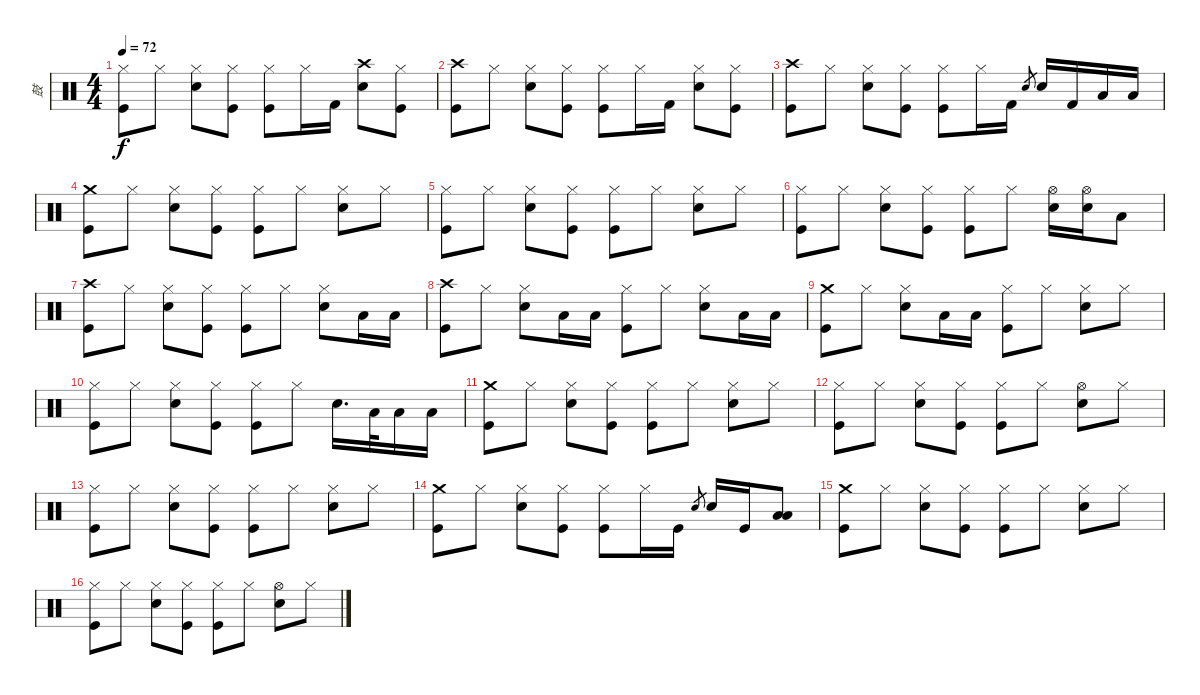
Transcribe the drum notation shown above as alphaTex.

\track ("鼓" "鼓") {instrument percussion}
\staff {score}
\articulation defaults
\ts (4 4)
\tempo 72
\clef neutral
\ks c
("Hi-Hat (closed)" "Kick (hit)").8{dy f} "Hi-Hat (closed)".8 ("Hi-Hat (closed)" "Snare (hit) 2").8 ("Hi-Hat (closed)" "Kick (hit)").8 ("Hi-Hat (closed)" "Kick (hit)").8 "Hi-Hat (closed)".16 "Kick (hit) 2".16 ("Crash high (hit)" "Snare (hit) 2").8 ("Hi-Hat (closed)" "Kick (hit)").8 |
("Crash high (hit)" "Kick (hit)").8 "Hi-Hat (closed)".8 ("Hi-Hat (closed)" "Snare (hit) 2").8 ("Hi-Hat (closed)" "Kick (hit)").8 ("Hi-Hat (closed)" "Kick (hit)").8 "Hi-Hat (closed)".16 "Kick (hit) 2".16 ("Hi-Hat (closed)" "Snare (hit) 2").8 ("Hi-Hat (closed)" "Kick (hit)").8 |
("Crash high (hit)" "Kick (hit)").8 "Hi-Hat (closed)".8 ("Hi-Hat (closed)" "Snare (hit) 2").8 ("Hi-Hat (closed)" "Kick (hit)").8 ("Hi-Hat (closed)" "Kick (hit)").8 "Hi-Hat (closed)".16 "Kick (hit) 2".16 "Snare (hit) 2".8{gr} "Snare (hit) 2".16 "Kick (hit) 2".16 "Low Tom (hit)".16 "Low Floor Tom (hit)".16 |
("Crash medium (hit)" "Kick (hit)").8 "Hi-Hat (closed)".8 ("Hi-Hat (closed)" "Snare (hit) 2").8 ("Hi-Hat (closed)" "Kick (hit)").8 ("Hi-Hat (closed)" "Kick (hit)").8 "Hi-Hat (closed)".8 ("Hi-Hat (closed)" "Snare (hit) 2").8 "Hi-Hat (closed)".8 |
("Hi-Hat (closed)" "Kick (hit)").8 "Hi-Hat (closed)".8 ("Hi-Hat (closed)" "Snare (hit) 2").8 ("Hi-Hat (closed)" "Kick (hit)").8 ("Hi-Hat (closed)" "Kick (hit)").8 "Hi-Hat (closed)".8 ("Hi-Hat (closed)" "Snare (hit) 2").8 "Hi-Hat (closed)".8 |
("Hi-Hat (closed)" "Kick (hit)").8 "Hi-Hat (closed)".8 ("Hi-Hat (closed)" "Snare (hit) 2").8 ("Hi-Hat (closed)" "Kick (hit)").8 ("Hi-Hat (closed)" "Kick (hit)").8 "Hi-Hat (closed)".8 ("Hi-Hat (open)" "Snare (hit) 2").16 ("Hi-Hat (open)" "Snare (hit) 2").16 "Low Tom (hit)".8 |
("Crash high (hit)" "Kick (hit)").8 "Hi-Hat (closed)".8 ("Hi-Hat (closed)" "Snare (hit) 2").8 ("Hi-Hat (closed)" "Kick (hit)").8 ("Hi-Hat (closed)" "Kick (hit)").8 "Hi-Hat (closed)".8 ("Hi-Hat (closed)" "Snare (hit) 2").8 "Low Floor Tom (hit)".16 "Low Floor Tom (hit)".16 |
("Crash high (hit)" "Kick (hit)").8 "Hi-Hat (closed)".8 ("Hi-Hat (closed)" "Snare (hit) 2").8 "Low Floor Tom (hit)".16 "Low Floor Tom (hit)".16 ("Hi-Hat (closed)" "Kick (hit)").8 "Hi-Hat (closed)".8 ("Hi-Hat (closed)" "Snare (hit) 2").8 "Low Floor Tom (hit)".16 "Low Floor Tom (hit)".16 |
("Crash medium (hit)" "Kick (hit)").8 "Hi-Hat (closed)".8 ("Hi-Hat (closed)" "Snare (hit) 2").8 "Low Floor Tom (hit)".16 "Low Floor Tom (hit)".16 ("Hi-Hat (closed)" "Kick (hit)").8 "Hi-Hat (closed)".8 ("Hi-Hat (closed)" "Snare (hit) 2").8 "Hi-Hat (closed)".8 |
("Hi-Hat (closed)" "Kick (hit)").8 "Hi-Hat (closed)".8 ("Hi-Hat (closed)" "Snare (hit) 2").8 ("Hi-Hat (closed)" "Kick (hit)").8 ("Hi-Hat (closed)" "Kick (hit)").8 "Hi-Hat (closed)".8 "Snare (hit) 2".16{d} "Low Tom (hit)".32 "Low Tom (hit)".16 "Low Tom (hit)".16 |
("Crash medium (hit)" "Kick (hit)").8 "Hi-Hat (closed)".8 ("Hi-Hat (closed)" "Snare (hit) 2").8 ("Hi-Hat (closed)" "Kick (hit)").8 ("Hi-Hat (closed)" "Kick (hit)").8 "Hi-Hat (closed)".8 ("Hi-Hat (closed)" "Snare (hit) 2").8 "Hi-Hat (closed)".8 |
("Hi-Hat (closed)" "Kick (hit)").8 "Hi-Hat (closed)".8 ("Hi-Hat (closed)" "Snare (hit) 2").8 ("Hi-Hat (closed)" "Kick (hit)").8 ("Hi-Hat (closed)" "Kick (hit)").8 "Hi-Hat (closed)".8 ("Hi-Hat (open)" "Snare (hit) 2").8 "Hi-Hat (closed)".8 |
("Hi-Hat (closed)" "Kick (hit)").8 "Hi-Hat (closed)".8 ("Hi-Hat (closed)" "Snare (hit) 2").8 ("Hi-Hat (closed)" "Kick (hit)").8 ("Hi-Hat (closed)" "Kick (hit)").8 "Hi-Hat (closed)".8 ("Hi-Hat (closed)" "Snare (hit) 2").8 "Hi-Hat (closed)".8 |
("Crash medium (hit)" "Kick (hit)").8 "Hi-Hat (closed)".8 ("Hi-Hat (closed)" "Snare (hit) 2").8 ("Hi-Hat (closed)" "Kick (hit)").8 ("Hi-Hat (closed)" "Kick (hit)").8 "Hi-Hat (closed)".16 "Kick (hit)".16 "Snare (hit) 2".8{gr} "Snare (hit) 2".16 "Kick (hit)".16 ("Low Tom (hit)" "Low Floor Tom (hit)").8 |
("Crash medium (hit)" "Kick (hit)").8 "Hi-Hat (closed)".8 ("Hi-Hat (closed)" "Snare (hit) 2").8 ("Hi-Hat (closed)" "Kick (hit)").8 ("Hi-Hat (closed)" "Kick (hit)").8 "Hi-Hat (closed)".8 ("Hi-Hat (closed)" "Snare (hit) 2").8 "Hi-Hat (closed)".8 |
("Hi-Hat (closed)" "Kick (hit)").8 "Hi-Hat (closed)".8 ("Hi-Hat (closed)" "Snare (hit) 2").8 ("Hi-Hat (closed)" "Kick (hit)").8 ("Hi-Hat (closed)" "Kick (hit)").8 "Hi-Hat (closed)".8 ("Hi-Hat (open)" "Snare (hit) 2").8 "Hi-Hat (closed)".8
